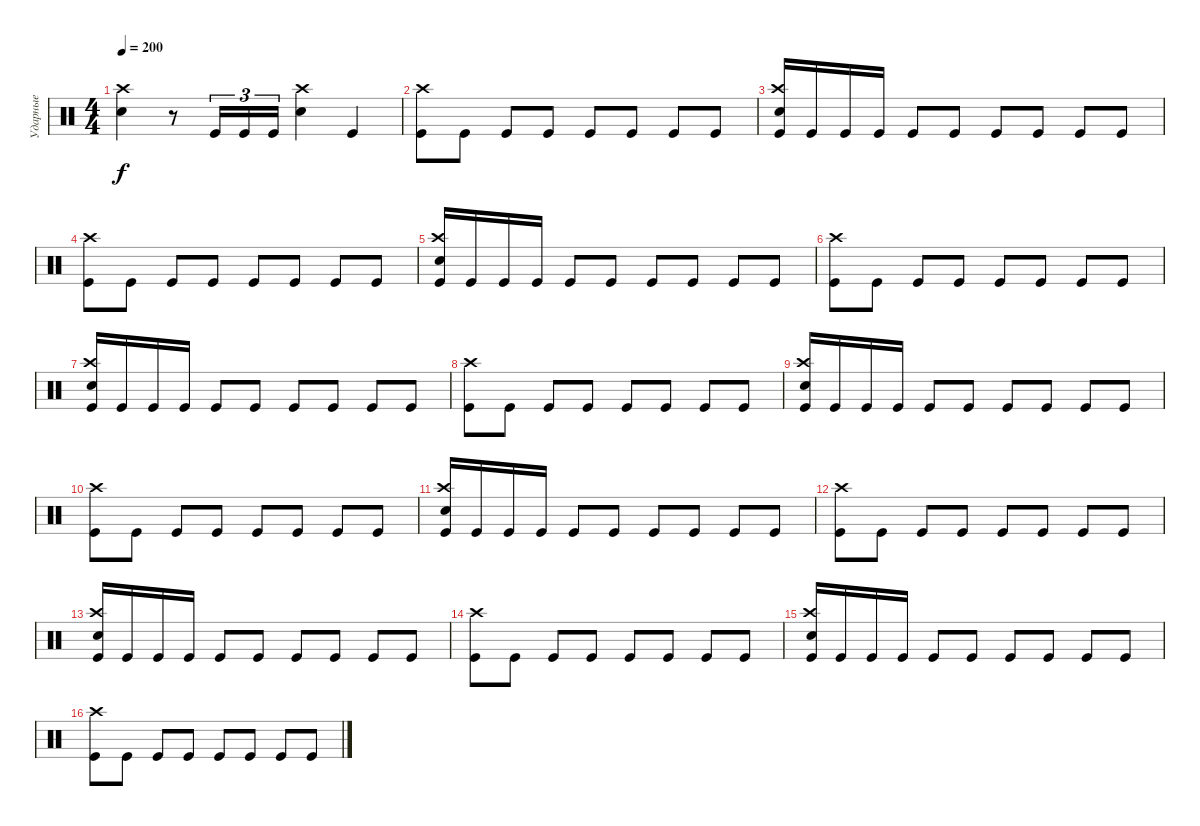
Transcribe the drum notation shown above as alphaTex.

\track ("Ударные" "Ударные") {instrument percussion}
\staff {score}
\articulation defaults
\ts (4 4)
\tempo 200
\clef neutral
\ks c
("Snare (hit) 2" "Crash high (hit)").4{dy f} r.8 "Kick (hit)".16{tu (3 2)} "Kick (hit)".16{tu (3 2)} "Kick (hit)".16{tu (3 2)} ("Snare (hit) 2" "Crash high (hit)").4 "Kick (hit)".4 |
("Kick (hit)" "Crash high (hit)").8 "Kick (hit)".8 "Kick (hit)".8 "Kick (hit)".8 "Kick (hit)".8 "Kick (hit)".8 "Kick (hit)".8 "Kick (hit)".8 |
("Kick (hit)" "Crash high (hit)" "Snare (hit) 2").16 "Kick (hit)".16 "Kick (hit)".16 "Kick (hit)".16 "Kick (hit)".8 "Kick (hit)".8 "Kick (hit)".8 "Kick (hit)".8 "Kick (hit)".8 "Kick (hit)".8 |
("Kick (hit)" "Crash high (hit)").8 "Kick (hit)".8 "Kick (hit)".8 "Kick (hit)".8 "Kick (hit)".8 "Kick (hit)".8 "Kick (hit)".8 "Kick (hit)".8 |
("Kick (hit)" "Crash high (hit)" "Snare (hit) 2").16 "Kick (hit)".16 "Kick (hit)".16 "Kick (hit)".16 "Kick (hit)".8 "Kick (hit)".8 "Kick (hit)".8 "Kick (hit)".8 "Kick (hit)".8 "Kick (hit)".8 |
("Kick (hit)" "Crash high (hit)").8 "Kick (hit)".8 "Kick (hit)".8 "Kick (hit)".8 "Kick (hit)".8 "Kick (hit)".8 "Kick (hit)".8 "Kick (hit)".8 |
("Kick (hit)" "Crash high (hit)" "Snare (hit) 2").16 "Kick (hit)".16 "Kick (hit)".16 "Kick (hit)".16 "Kick (hit)".8 "Kick (hit)".8 "Kick (hit)".8 "Kick (hit)".8 "Kick (hit)".8 "Kick (hit)".8 |
("Kick (hit)" "Crash high (hit)").8 "Kick (hit)".8 "Kick (hit)".8 "Kick (hit)".8 "Kick (hit)".8 "Kick (hit)".8 "Kick (hit)".8 "Kick (hit)".8 |
("Kick (hit)" "Crash high (hit)" "Snare (hit) 2").16 "Kick (hit)".16 "Kick (hit)".16 "Kick (hit)".16 "Kick (hit)".8 "Kick (hit)".8 "Kick (hit)".8 "Kick (hit)".8 "Kick (hit)".8 "Kick (hit)".8 |
("Kick (hit)" "Crash high (hit)").8 "Kick (hit)".8 "Kick (hit)".8 "Kick (hit)".8 "Kick (hit)".8 "Kick (hit)".8 "Kick (hit)".8 "Kick (hit)".8 |
("Kick (hit)" "Crash high (hit)" "Snare (hit) 2").16 "Kick (hit)".16 "Kick (hit)".16 "Kick (hit)".16 "Kick (hit)".8 "Kick (hit)".8 "Kick (hit)".8 "Kick (hit)".8 "Kick (hit)".8 "Kick (hit)".8 |
("Kick (hit)" "Crash high (hit)").8 "Kick (hit)".8 "Kick (hit)".8 "Kick (hit)".8 "Kick (hit)".8 "Kick (hit)".8 "Kick (hit)".8 "Kick (hit)".8 |
("Kick (hit)" "Crash high (hit)" "Snare (hit) 2").16 "Kick (hit)".16 "Kick (hit)".16 "Kick (hit)".16 "Kick (hit)".8 "Kick (hit)".8 "Kick (hit)".8 "Kick (hit)".8 "Kick (hit)".8 "Kick (hit)".8 |
("Kick (hit)" "Crash high (hit)").8 "Kick (hit)".8 "Kick (hit)".8 "Kick (hit)".8 "Kick (hit)".8 "Kick (hit)".8 "Kick (hit)".8 "Kick (hit)".8 |
("Kick (hit)" "Crash high (hit)" "Snare (hit) 2").16 "Kick (hit)".16 "Kick (hit)".16 "Kick (hit)".16 "Kick (hit)".8 "Kick (hit)".8 "Kick (hit)".8 "Kick (hit)".8 "Kick (hit)".8 "Kick (hit)".8 |
("Kick (hit)" "Crash high (hit)").8 "Kick (hit)".8 "Kick (hit)".8 "Kick (hit)".8 "Kick (hit)".8 "Kick (hit)".8 "Kick (hit)".8 "Kick (hit)".8
